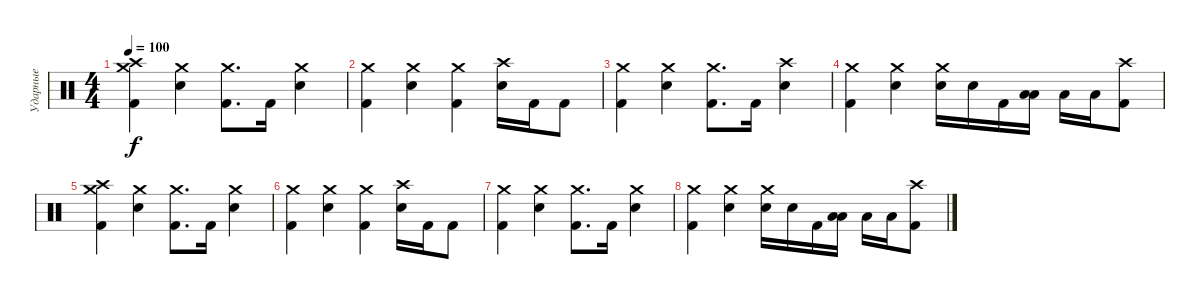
\track ("Ударные" "Ударные") {instrument percussion}
\staff {score}
\articulation defaults
\ts (4 4)
\tempo 100
\clef neutral
\ks c
("Crash medium (hit)" "Crash high (hit)" "Kick (hit) 2").4{dy f} ("Crash medium (hit)" "Snare (hit) 2").4 ("Crash medium (hit)" "Kick (hit) 2").8{d} "Kick (hit) 2".16 ("Crash medium (hit)" "Snare (hit) 2").4 |
("Crash medium (hit)" "Kick (hit) 2").4 ("Crash medium (hit)" "Snare (hit) 2").4 ("Crash medium (hit)" "Kick (hit) 2").4 ("Crash high (hit)" "Snare (hit) 2").16 "Kick (hit) 2".16 "Kick (hit) 2".8 |
("Crash medium (hit)" "Kick (hit) 2").4 ("Crash medium (hit)" "Snare (hit) 2").4 ("Crash medium (hit)" "Kick (hit) 2").8{d} "Kick (hit) 2".16 ("Crash high (hit)" "Snare (hit) 2").4 |
("Crash medium (hit)" "Kick (hit) 2").4 ("Crash medium (hit)" "Snare (hit) 2").4 ("Crash medium (hit)" "Electric Snare (hit)").16 "Electric Snare (hit)".16 "Kick (hit) 2".16 ("Low Tom (hit)" "Low Floor Tom (hit)").16 "Low Floor Tom (hit)".16 "Low Floor Tom (hit)".16 ("Crash high (hit)" "Kick (hit) 2").8 |
("Crash medium (hit)" "Crash high (hit)" "Kick (hit) 2").4 ("Crash medium (hit)" "Snare (hit) 2").4 ("Crash medium (hit)" "Kick (hit) 2").8{d} "Kick (hit) 2".16 ("Crash medium (hit)" "Snare (hit) 2").4 |
("Crash medium (hit)" "Kick (hit) 2").4 ("Crash medium (hit)" "Snare (hit) 2").4 ("Crash medium (hit)" "Kick (hit) 2").4 ("Crash high (hit)" "Snare (hit) 2").16 "Kick (hit) 2".16 "Kick (hit) 2".8 |
("Crash medium (hit)" "Kick (hit) 2").4 ("Crash medium (hit)" "Snare (hit) 2").4 ("Crash medium (hit)" "Kick (hit) 2").8{d} "Kick (hit) 2".16 ("Crash medium (hit)" "Snare (hit) 2").4 |
("Crash medium (hit)" "Kick (hit) 2").4 ("Crash medium (hit)" "Snare (hit) 2").4 ("Crash medium (hit)" "Electric Snare (hit)").16 "Electric Snare (hit)".16 "Kick (hit) 2".16 ("Low Tom (hit)" "Low Floor Tom (hit)").16 "Low Floor Tom (hit)".16 "Low Floor Tom (hit)".16 ("Crash high (hit)" "Kick (hit) 2").8
